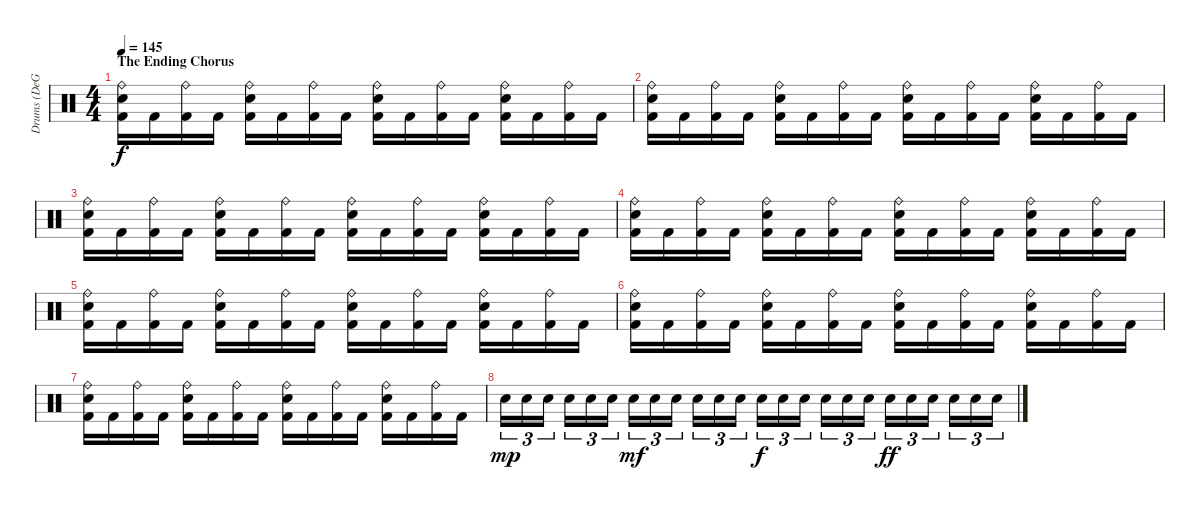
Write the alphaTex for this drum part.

\track ("Drums (DeGrasso)" "Drums (DeG") {instrument percussion}
\staff {score}
\articulation defaults
\ts (4 4)
\section ("" "The Ending Chorus")
\tempo 145
\clef neutral
\ks c
("Ride (bell)" "Snare (hit) 2" "Kick (hit) 2").16{dy f} "Kick (hit) 2".16 ("Ride (bell)" "Kick (hit) 2").16 "Kick (hit) 2".16 ("Ride (bell)" "Snare (hit) 2" "Kick (hit) 2").16 "Kick (hit) 2".16 ("Ride (bell)" "Kick (hit) 2").16 "Kick (hit) 2".16 ("Ride (bell)" "Snare (hit) 2" "Kick (hit) 2").16 "Kick (hit) 2".16 ("Ride (bell)" "Kick (hit) 2").16 "Kick (hit) 2".16 ("Ride (bell)" "Snare (hit) 2" "Kick (hit) 2").16 "Kick (hit) 2".16 ("Ride (bell)" "Kick (hit) 2").16 "Kick (hit) 2".16 |
("Ride (bell)" "Snare (hit) 2" "Kick (hit) 2").16 "Kick (hit) 2".16 ("Ride (bell)" "Kick (hit) 2").16 "Kick (hit) 2".16 ("Ride (bell)" "Snare (hit) 2" "Kick (hit) 2").16 "Kick (hit) 2".16 ("Ride (bell)" "Kick (hit) 2").16 "Kick (hit) 2".16 ("Ride (bell)" "Snare (hit) 2" "Kick (hit) 2").16 "Kick (hit) 2".16 ("Ride (bell)" "Kick (hit) 2").16 "Kick (hit) 2".16 ("Ride (bell)" "Snare (hit) 2" "Kick (hit) 2").16 "Kick (hit) 2".16 ("Ride (bell)" "Kick (hit) 2").16 "Kick (hit) 2".16 |
("Ride (bell)" "Snare (hit) 2" "Kick (hit) 2").16 "Kick (hit) 2".16 ("Ride (bell)" "Kick (hit) 2").16 "Kick (hit) 2".16 ("Ride (bell)" "Snare (hit) 2" "Kick (hit) 2").16 "Kick (hit) 2".16 ("Ride (bell)" "Kick (hit) 2").16 "Kick (hit) 2".16 ("Ride (bell)" "Snare (hit) 2" "Kick (hit) 2").16 "Kick (hit) 2".16 ("Ride (bell)" "Kick (hit) 2").16 "Kick (hit) 2".16 ("Ride (bell)" "Snare (hit) 2" "Kick (hit) 2").16 "Kick (hit) 2".16 ("Ride (bell)" "Kick (hit) 2").16 "Kick (hit) 2".16 |
("Ride (bell)" "Snare (hit) 2" "Kick (hit) 2").16 "Kick (hit) 2".16 ("Ride (bell)" "Kick (hit) 2").16 "Kick (hit) 2".16 ("Ride (bell)" "Snare (hit) 2" "Kick (hit) 2").16 "Kick (hit) 2".16 ("Ride (bell)" "Kick (hit) 2").16 "Kick (hit) 2".16 ("Ride (bell)" "Snare (hit) 2" "Kick (hit) 2").16 "Kick (hit) 2".16 ("Ride (bell)" "Kick (hit) 2").16 "Kick (hit) 2".16 ("Ride (bell)" "Snare (hit) 2" "Kick (hit) 2").16 "Kick (hit) 2".16 ("Ride (bell)" "Kick (hit) 2").16 "Kick (hit) 2".16 |
("Ride (bell)" "Snare (hit) 2" "Kick (hit) 2").16 "Kick (hit) 2".16 ("Ride (bell)" "Kick (hit) 2").16 "Kick (hit) 2".16 ("Ride (bell)" "Snare (hit) 2" "Kick (hit) 2").16 "Kick (hit) 2".16 ("Ride (bell)" "Kick (hit) 2").16 "Kick (hit) 2".16 ("Ride (bell)" "Snare (hit) 2" "Kick (hit) 2").16 "Kick (hit) 2".16 ("Ride (bell)" "Kick (hit) 2").16 "Kick (hit) 2".16 ("Ride (bell)" "Snare (hit) 2" "Kick (hit) 2").16 "Kick (hit) 2".16 ("Ride (bell)" "Kick (hit) 2").16 "Kick (hit) 2".16 |
("Ride (bell)" "Snare (hit) 2" "Kick (hit) 2").16 "Kick (hit) 2".16 ("Ride (bell)" "Kick (hit) 2").16 "Kick (hit) 2".16 ("Ride (bell)" "Snare (hit) 2" "Kick (hit) 2").16 "Kick (hit) 2".16 ("Ride (bell)" "Kick (hit) 2").16 "Kick (hit) 2".16 ("Ride (bell)" "Snare (hit) 2" "Kick (hit) 2").16 "Kick (hit) 2".16 ("Ride (bell)" "Kick (hit) 2").16 "Kick (hit) 2".16 ("Ride (bell)" "Snare (hit) 2" "Kick (hit) 2").16 "Kick (hit) 2".16 ("Ride (bell)" "Kick (hit) 2").16 "Kick (hit) 2".16 |
("Ride (bell)" "Snare (hit) 2" "Kick (hit) 2").16 "Kick (hit) 2".16 ("Ride (bell)" "Kick (hit) 2").16 "Kick (hit) 2".16 ("Ride (bell)" "Snare (hit) 2" "Kick (hit) 2").16 "Kick (hit) 2".16 ("Ride (bell)" "Kick (hit) 2").16 "Kick (hit) 2".16 ("Ride (bell)" "Snare (hit) 2" "Kick (hit) 2").16 "Kick (hit) 2".16 ("Ride (bell)" "Kick (hit) 2").16 "Kick (hit) 2".16 ("Ride (bell)" "Snare (hit) 2" "Kick (hit) 2").16 "Kick (hit) 2".16 ("Ride (bell)" "Kick (hit) 2").16 "Kick (hit) 2".16 |
"Snare (hit) 2".16{tu (3 2) dy mp} "Snare (hit) 2".16{tu (3 2)} "Snare (hit) 2".16{tu (3 2) beam splitsecondary} "Snare (hit) 2".16{tu (3 2)} "Snare (hit) 2".16{tu (3 2)} "Snare (hit) 2".16{tu (3 2)} "Snare (hit) 2".16{tu (3 2) dy mf} "Snare (hit) 2".16{tu (3 2)} "Snare (hit) 2".16{tu (3 2) beam splitsecondary} "Snare (hit) 2".16{tu (3 2)} "Snare (hit) 2".16{tu (3 2)} "Snare (hit) 2".16{tu (3 2)} "Snare (hit) 2".16{tu (3 2) dy f} "Snare (hit) 2".16{tu (3 2)} "Snare (hit) 2".16{tu (3 2) beam splitsecondary} "Snare (hit) 2".16{tu (3 2)} "Snare (hit) 2".16{tu (3 2)} "Snare (hit) 2".16{tu (3 2)} "Snare (hit) 2".16{tu (3 2) dy ff} "Snare (hit) 2".16{tu (3 2)} "Snare (hit) 2".16{tu (3 2) beam splitsecondary} "Snare (hit) 2".16{tu (3 2)} "Snare (hit) 2".16{tu (3 2)} "Snare (hit) 2".16{tu (3 2)}
